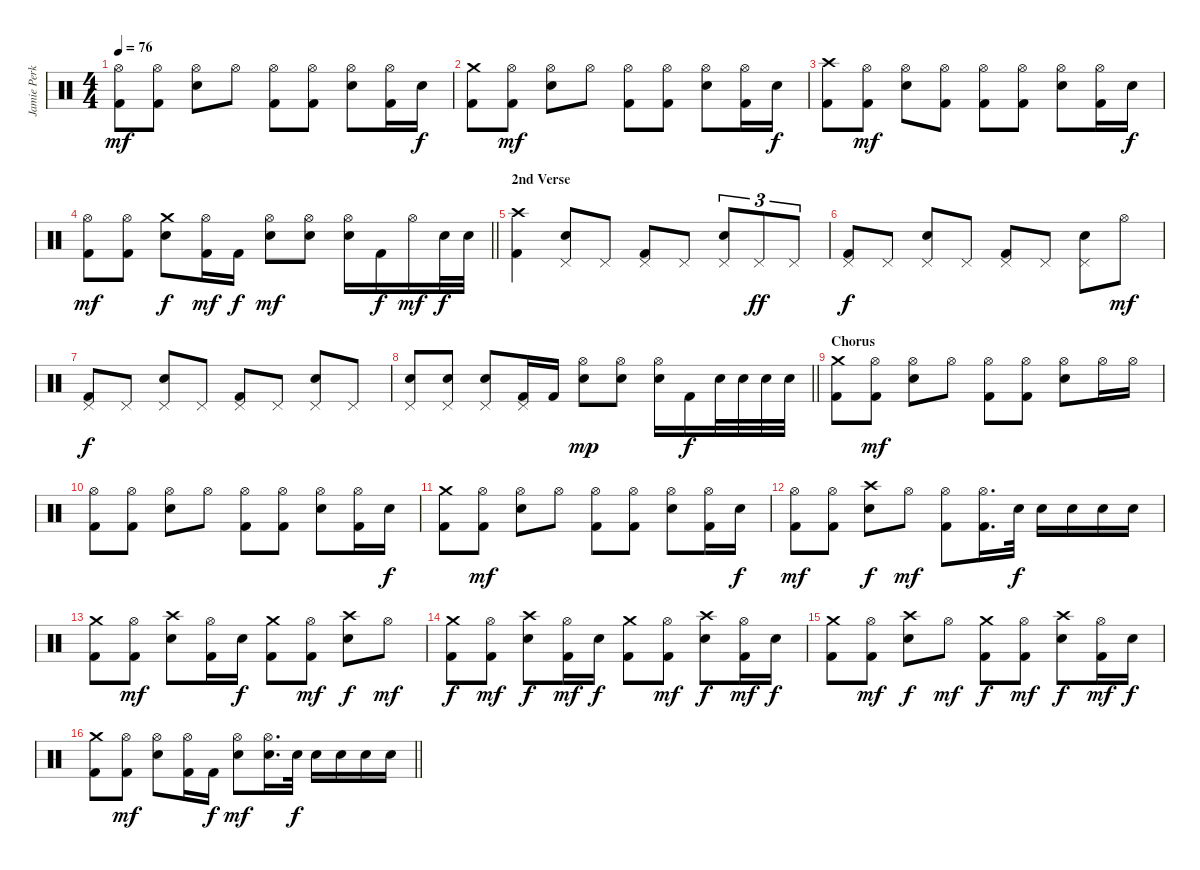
\track ("Jamie Perkins" "Jamie Perk") {instrument percussion}
\staff {score}
\articulation defaults
\ts (4 4)
\tempo 76
\clef neutral
\ks c
("Hi-Hat (open)" "Kick (hit) 2").8{dy mf} ("Hi-Hat (open)" "Kick (hit) 2").8 ("Hi-Hat (open)" "Snare (hit) 2").8 "Hi-Hat (open)".8 ("Hi-Hat (open)" "Kick (hit) 2").8 ("Hi-Hat (open)" "Kick (hit) 2").8 ("Hi-Hat (open)" "Snare (hit) 2").8 ("Hi-Hat (open)" "Kick (hit) 2").16 "Snare (hit) 2".16{dy f} |
("Crash medium (hit)" "Kick (hit) 2").8 ("Hi-Hat (open)" "Kick (hit) 2").8{dy mf} ("Hi-Hat (open)" "Snare (hit) 2").8 "Hi-Hat (open)".8 ("Hi-Hat (open)" "Kick (hit) 2").8 ("Hi-Hat (open)" "Kick (hit) 2").8 ("Hi-Hat (open)" "Snare (hit) 2").8 ("Hi-Hat (open)" "Kick (hit) 2").16 "Snare (hit) 2".16{dy f} |
("Crash high (hit)" "Kick (hit) 2").8 ("Hi-Hat (open)" "Kick (hit) 2").8{dy mf} ("Hi-Hat (open)" "Snare (hit) 2").8 ("Hi-Hat (open)" "Kick (hit) 2").8 ("Hi-Hat (open)" "Kick (hit) 2").8 ("Hi-Hat (open)" "Kick (hit) 2").8 ("Hi-Hat (open)" "Snare (hit) 2").8 ("Hi-Hat (open)" "Kick (hit) 2").16 "Snare (hit) 2".16{dy f} |
\barLineRight lightlight
("Hi-Hat (open)" "Kick (hit) 2").8{dy mf} ("Hi-Hat (open)" "Kick (hit) 2").8 ("Crash medium (hit)" "Snare (hit) 2").8{dy f} ("Hi-Hat (open)" "Kick (hit) 2").16{dy mf} "Kick (hit) 2".16{dy f} ("Hi-Hat (open)" "Snare (hit) 2").8{dy mf} ("Hi-Hat (open)" "Snare (hit) 2").8 ("Hi-Hat (open)" "Snare (hit) 2").16 "Kick (hit) 2".16{dy f} "Hi-Hat (open)".16{dy mf} "Snare (hit) 2".32{dy f} "Snare (hit) 2".32 |
\section ("" "2nd Verse")
("Crash high (hit)" "Kick (hit) 2").4 ("Pedal Hi-Hat (hit)" "Snare (hit) 2").8 "Pedal Hi-Hat (hit)".8 ("Pedal Hi-Hat (hit)" "Kick (hit) 2").8 "Pedal Hi-Hat (hit)".8 ("Pedal Hi-Hat (hit)" "Snare (hit) 2").8{tu (3 2)} "Pedal Hi-Hat (hit)".8{tu (3 2) dy ff} "Pedal Hi-Hat (hit)".8{tu (3 2)} |
("Pedal Hi-Hat (hit)" "Kick (hit) 2").8{dy f} "Pedal Hi-Hat (hit)".8 ("Pedal Hi-Hat (hit)" "Snare (hit) 2").8 "Pedal Hi-Hat (hit)".8 ("Pedal Hi-Hat (hit)" "Kick (hit) 2").8 "Pedal Hi-Hat (hit)".8 ("Pedal Hi-Hat (hit)" "Snare (hit) 2").8 "Hi-Hat (open)".8{dy mf} |
("Pedal Hi-Hat (hit)" "Kick (hit) 2").8{dy f} "Pedal Hi-Hat (hit)".8 ("Pedal Hi-Hat (hit)" "Snare (hit) 2").8 "Pedal Hi-Hat (hit)".8 ("Pedal Hi-Hat (hit)" "Kick (hit) 2").8 "Pedal Hi-Hat (hit)".8 ("Pedal Hi-Hat (hit)" "Snare (hit) 2").8 "Pedal Hi-Hat (hit)".8 |
\barLineRight lightlight
("Pedal Hi-Hat (hit)" "Snare (hit) 2").8 ("Pedal Hi-Hat (hit)" "Snare (hit) 2").8 ("Pedal Hi-Hat (hit)" "Snare (hit) 2").8 ("Pedal Hi-Hat (hit)" "Kick (hit) 2").16 "Kick (hit) 2".16 ("Hi-Hat (open)" "Snare (hit) 2").8{dy mp} ("Hi-Hat (open)" "Snare (hit) 2").8 ("Hi-Hat (open)" "Snare (hit) 2").16 "Kick (hit) 2".16{dy f} "Snare (hit) 2".32 "Snare (hit) 2".32 "Snare (hit) 2".32 "Snare (hit) 2".32 |
\section ("" "Chorus")
("Crash medium (hit)" "Kick (hit) 2").8 ("Hi-Hat (open)" "Kick (hit) 2").8{dy mf} ("Hi-Hat (open)" "Snare (hit) 2").8 "Hi-Hat (open)".8 ("Hi-Hat (open)" "Kick (hit) 2").8 ("Hi-Hat (open)" "Kick (hit) 2").8 ("Hi-Hat (open)" "Snare (hit) 2").8 "Hi-Hat (open)".16 "Hi-Hat (open)".16 |
("Hi-Hat (open)" "Kick (hit) 2").8 ("Hi-Hat (open)" "Kick (hit) 2").8 ("Hi-Hat (open)" "Snare (hit) 2").8 "Hi-Hat (open)".8 ("Hi-Hat (open)" "Kick (hit) 2").8 ("Hi-Hat (open)" "Kick (hit) 2").8 ("Hi-Hat (open)" "Snare (hit) 2").8 ("Hi-Hat (open)" "Kick (hit) 2").16 "Snare (hit) 2".16{dy f} |
("Crash medium (hit)" "Kick (hit) 2").8 ("Hi-Hat (open)" "Kick (hit) 2").8{dy mf} ("Hi-Hat (open)" "Snare (hit) 2").8 "Hi-Hat (open)".8 ("Hi-Hat (open)" "Kick (hit) 2").8 ("Hi-Hat (open)" "Kick (hit) 2").8 ("Hi-Hat (open)" "Snare (hit) 2").8 ("Hi-Hat (open)" "Kick (hit) 2").16 "Snare (hit) 2".16{dy f} |
("Hi-Hat (open)" "Kick (hit) 2").8{dy mf} ("Hi-Hat (open)" "Kick (hit) 2").8 ("Crash high (hit)" "Snare (hit) 2").8{dy f} "Hi-Hat (open)".8{dy mf} ("Hi-Hat (open)" "Kick (hit) 2").8 ("Hi-Hat (open)" "Kick (hit) 2").16{d} "Snare (hit) 2".32{dy f} "Snare (hit) 2".16 "Snare (hit) 2".16 "Snare (hit) 2".16 "Snare (hit) 2".16 |
("Crash medium (hit)" "Kick (hit) 2").8 ("Hi-Hat (open)" "Kick (hit) 2").8{dy mf} ("Crash high (hit)" "Snare (hit) 2").8 ("Hi-Hat (open)" "Kick (hit) 2").16 "Snare (hit) 2".16{dy f} ("Crash medium (hit)" "Kick (hit) 2").8 ("Hi-Hat (open)" "Kick (hit) 2").8{dy mf} ("Crash high (hit)" "Snare (hit) 2").8{dy f} "Hi-Hat (open)".8{dy mf} |
("Crash medium (hit)" "Kick (hit) 2").8{dy f} ("Hi-Hat (open)" "Kick (hit) 2").8{dy mf} ("Crash high (hit)" "Snare (hit) 2").8{dy f} ("Hi-Hat (open)" "Kick (hit) 2").16{dy mf} "Snare (hit) 2".16{dy f} ("Crash medium (hit)" "Kick (hit) 2").8 ("Hi-Hat (open)" "Kick (hit) 2").8{dy mf} ("Crash high (hit)" "Snare (hit) 2").8{dy f} ("Hi-Hat (open)" "Kick (hit) 2").16{dy mf} "Snare (hit) 2".16{dy f} |
("Crash medium (hit)" "Kick (hit) 2").8 ("Hi-Hat (open)" "Kick (hit) 2").8{dy mf} ("Crash high (hit)" "Snare (hit) 2").8{dy f} "Hi-Hat (open)".8{dy mf} ("Crash medium (hit)" "Kick (hit) 2").8{dy f} ("Hi-Hat (open)" "Kick (hit) 2").8{dy mf} ("Crash high (hit)" "Snare (hit) 2").8{dy f} ("Hi-Hat (open)" "Kick (hit) 2").16{dy mf} "Snare (hit) 2".16{dy f} |
\barLineRight lightlight
("Crash medium (hit)" "Kick (hit) 2").8 ("Hi-Hat (open)" "Kick (hit) 2").8{dy mf} ("Hi-Hat (open)" "Snare (hit) 2").8 ("Hi-Hat (open)" "Kick (hit) 2").16 "Kick (hit) 2".16{dy f} ("Hi-Hat (open)" "Snare (hit) 2").8{dy mf} ("Hi-Hat (open)" "Snare (hit) 2").16{d} "Snare (hit) 2".32{dy f} "Snare (hit) 2".16 "Snare (hit) 2".16 "Snare (hit) 2".16 "Snare (hit) 2".16
